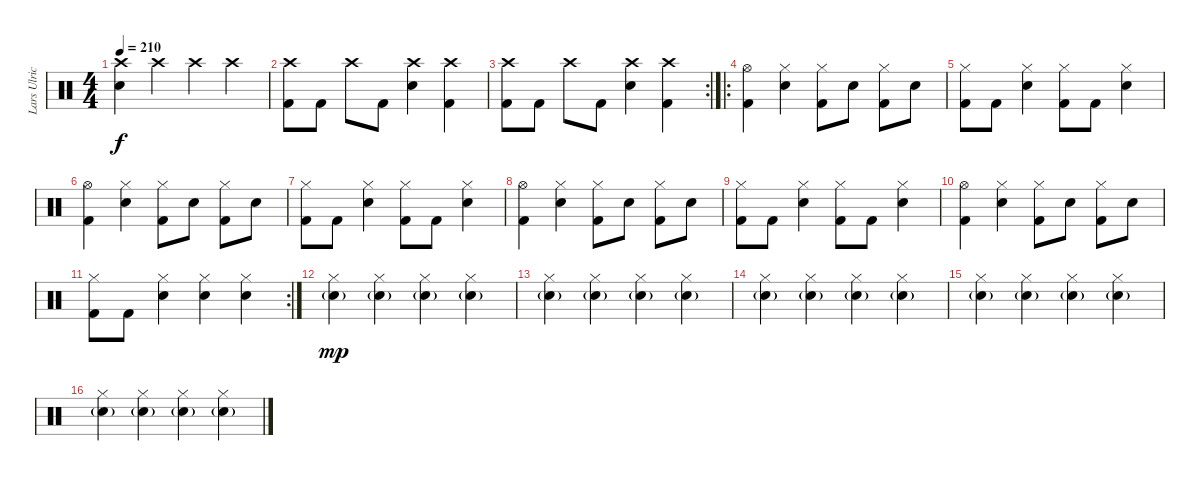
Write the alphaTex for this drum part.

\track ("Lars Ulrich" "Lars Ulric") {instrument percussion}
\staff {score}
\articulation defaults
\ts (4 4)
\tempo 210
\clef neutral
\ks c
("Crash high (hit)" "Snare (hit) 2").4{dy f} "Crash high (hit)".4 "Crash high (hit)".4 "Crash high (hit)".4 |
("Crash high (hit)" "Kick (hit) 2").8 "Kick (hit) 2".8 "Crash high (hit)".8 "Kick (hit) 2".8 ("Crash high (hit)" "Snare (hit) 2").4 ("Crash high (hit)" "Kick (hit) 2").4 |
\rc 2
("Crash high (hit)" "Kick (hit) 2").8 "Kick (hit) 2".8 "Crash high (hit)".8 "Kick (hit) 2".8 ("Crash high (hit)" "Snare (hit) 2").4 ("Crash high (hit)" "Kick (hit) 2").4 |
\ro
("Hi-Hat (open)" "Kick (hit) 2").4 ("Hi-Hat (closed)" "Snare (hit) 2").4 ("Hi-Hat (closed)" "Kick (hit) 2").8 "Snare (hit) 2".8 ("Hi-Hat (closed)" "Kick (hit) 2").8 "Snare (hit) 2".8 |
("Hi-Hat (closed)" "Kick (hit) 2").8 "Kick (hit) 2".8 ("Hi-Hat (closed)" "Snare (hit) 2").4 ("Hi-Hat (closed)" "Kick (hit) 2").8 "Kick (hit) 2".8 ("Hi-Hat (closed)" "Snare (hit) 2").4 |
("Hi-Hat (open)" "Kick (hit) 2").4 ("Hi-Hat (closed)" "Snare (hit) 2").4 ("Hi-Hat (closed)" "Kick (hit) 2").8 "Snare (hit) 2".8 ("Hi-Hat (closed)" "Kick (hit) 2").8 "Snare (hit) 2".8 |
("Hi-Hat (closed)" "Kick (hit) 2").8 "Kick (hit) 2".8 ("Hi-Hat (closed)" "Snare (hit) 2").4 ("Hi-Hat (closed)" "Kick (hit) 2").8 "Kick (hit) 2".8 ("Hi-Hat (closed)" "Snare (hit) 2").4 |
("Hi-Hat (open)" "Kick (hit) 2").4 ("Hi-Hat (closed)" "Snare (hit) 2").4 ("Hi-Hat (closed)" "Kick (hit) 2").8 "Snare (hit) 2".8 ("Hi-Hat (closed)" "Kick (hit) 2").8 "Snare (hit) 2".8 |
("Hi-Hat (closed)" "Kick (hit) 2").8 "Kick (hit) 2".8 ("Hi-Hat (closed)" "Snare (hit) 2").4 ("Hi-Hat (closed)" "Kick (hit) 2").8 "Kick (hit) 2".8 ("Hi-Hat (closed)" "Snare (hit) 2").4 |
("Hi-Hat (open)" "Kick (hit) 2").4 ("Hi-Hat (closed)" "Snare (hit) 2").4 ("Hi-Hat (closed)" "Kick (hit) 2").8 "Snare (hit) 2".8 ("Hi-Hat (closed)" "Kick (hit) 2").8 "Snare (hit) 2".8 |
\rc 2
("Hi-Hat (closed)" "Kick (hit) 2").8 "Kick (hit) 2".8 ("Hi-Hat (closed)" "Snare (hit) 2").4 ("Hi-Hat (closed)" "Snare (hit) 2").4 ("Hi-Hat (closed)" "Snare (hit) 2").4 |
("Hi-Hat (closed)" "Snare (hit) 2"{g}).4{dy mp} ("Hi-Hat (closed)" "Snare (hit) 2"{g}).4 ("Hi-Hat (closed)" "Snare (hit) 2"{g}).4 ("Hi-Hat (closed)" "Snare (hit) 2"{g}).4 |
("Hi-Hat (closed)" "Snare (hit) 2"{g}).4 ("Hi-Hat (closed)" "Snare (hit) 2"{g}).4 ("Hi-Hat (closed)" "Snare (hit) 2"{g}).4 ("Hi-Hat (closed)" "Snare (hit) 2"{g}).4 |
("Hi-Hat (closed)" "Snare (hit) 2"{g}).4 ("Hi-Hat (closed)" "Snare (hit) 2"{g}).4 ("Hi-Hat (closed)" "Snare (hit) 2"{g}).4 ("Hi-Hat (closed)" "Snare (hit) 2"{g}).4 |
("Hi-Hat (closed)" "Snare (hit) 2"{g}).4 ("Hi-Hat (closed)" "Snare (hit) 2"{g}).4 ("Hi-Hat (closed)" "Snare (hit) 2"{g}).4 ("Hi-Hat (closed)" "Snare (hit) 2"{g}).4 |
("Hi-Hat (closed)" "Snare (hit) 2"{g}).4 ("Hi-Hat (closed)" "Snare (hit) 2"{g}).4 ("Hi-Hat (closed)" "Snare (hit) 2"{g}).4 ("Hi-Hat (closed)" "Snare (hit) 2"{g}).4
